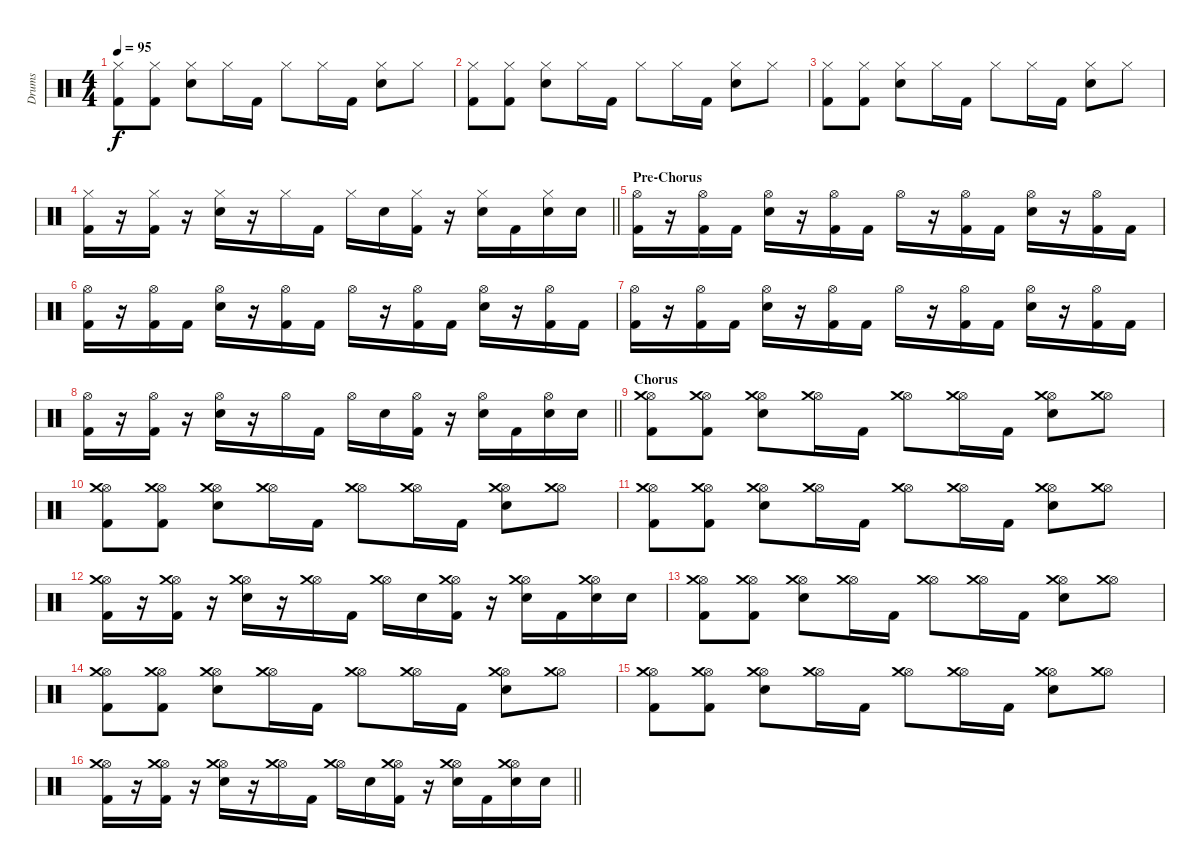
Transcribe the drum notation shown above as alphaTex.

\track ("Drums" "Drums") {instrument percussion}
\staff {score}
\articulation defaults
\ts (4 4)
\tempo 95
\clef neutral
\ks c
("Hi-Hat (closed)" "Kick (hit) 2").8{dy f} ("Hi-Hat (closed)" "Kick (hit) 2").8 ("Hi-Hat (closed)" "Snare (hit) 2").8 "Hi-Hat (closed)".16 "Kick (hit) 2".16 "Hi-Hat (closed)".8 "Hi-Hat (closed)".16 "Kick (hit) 2".16 ("Hi-Hat (closed)" "Snare (hit) 2").8 "Hi-Hat (closed)".8 |
("Hi-Hat (closed)" "Kick (hit) 2").8 ("Hi-Hat (closed)" "Kick (hit) 2").8 ("Hi-Hat (closed)" "Snare (hit) 2").8 "Hi-Hat (closed)".16 "Kick (hit) 2".16 "Hi-Hat (closed)".8 "Hi-Hat (closed)".16 "Kick (hit) 2".16 ("Hi-Hat (closed)" "Snare (hit) 2").8 "Hi-Hat (closed)".8 |
("Hi-Hat (closed)" "Kick (hit) 2").8 ("Hi-Hat (closed)" "Kick (hit) 2").8 ("Hi-Hat (closed)" "Snare (hit) 2").8 "Hi-Hat (closed)".16 "Kick (hit) 2".16 "Hi-Hat (closed)".8 "Hi-Hat (closed)".16 "Kick (hit) 2".16 ("Hi-Hat (closed)" "Snare (hit) 2").8 "Hi-Hat (closed)".8 |
\barLineRight lightlight
("Hi-Hat (closed)" "Kick (hit) 2").16 r.16 ("Hi-Hat (closed)" "Kick (hit) 2").16 r.16 ("Hi-Hat (closed)" "Snare (hit) 2").16 r.16 "Hi-Hat (closed)".16 "Kick (hit) 2".16 "Hi-Hat (closed)".16 "Snare (hit) 2".16 ("Hi-Hat (closed)" "Kick (hit) 2").16 r.16 ("Hi-Hat (closed)" "Snare (hit) 2").16 "Kick (hit) 2".16 ("Hi-Hat (closed)" "Snare (hit) 2").16 "Snare (hit) 2".16 |
\section ("" "Pre-Chorus")
("Hi-Hat (open)" "Kick (hit) 2").16 r.16 ("Hi-Hat (open)" "Kick (hit) 2").16 "Kick (hit) 2".16 ("Hi-Hat (open)" "Snare (hit) 2").16 r.16 ("Hi-Hat (open)" "Kick (hit) 2").16 "Kick (hit) 2".16 "Hi-Hat (open)".16 r.16 ("Hi-Hat (open)" "Kick (hit) 2").16 "Kick (hit) 2".16 ("Hi-Hat (open)" "Snare (hit) 2").16 r.16 ("Hi-Hat (open)" "Kick (hit) 2").16 "Kick (hit) 2".16 |
("Hi-Hat (open)" "Kick (hit) 2").16 r.16 ("Hi-Hat (open)" "Kick (hit) 2").16 "Kick (hit) 2".16 ("Hi-Hat (open)" "Snare (hit) 2").16 r.16 ("Hi-Hat (open)" "Kick (hit) 2").16 "Kick (hit) 2".16 "Hi-Hat (open)".16 r.16 ("Hi-Hat (open)" "Kick (hit) 2").16 "Kick (hit) 2".16 ("Hi-Hat (open)" "Snare (hit) 2").16 r.16 ("Hi-Hat (open)" "Kick (hit) 2").16 "Kick (hit) 2".16 |
("Hi-Hat (open)" "Kick (hit) 2").16 r.16 ("Hi-Hat (open)" "Kick (hit) 2").16 "Kick (hit) 2".16 ("Hi-Hat (open)" "Snare (hit) 2").16 r.16 ("Hi-Hat (open)" "Kick (hit) 2").16 "Kick (hit) 2".16 "Hi-Hat (open)".16 r.16 ("Hi-Hat (open)" "Kick (hit) 2").16 "Kick (hit) 2".16 ("Hi-Hat (open)" "Snare (hit) 2").16 r.16 ("Hi-Hat (open)" "Kick (hit) 2").16 "Kick (hit) 2".16 |
\barLineRight lightlight
("Hi-Hat (open)" "Kick (hit) 2").16 r.16 ("Hi-Hat (open)" "Kick (hit) 2").16 r.16 ("Hi-Hat (open)" "Snare (hit) 2").16 r.16 "Hi-Hat (open)".16 "Kick (hit) 2".16 "Hi-Hat (open)".16 "Snare (hit) 2".16 ("Hi-Hat (open)" "Kick (hit) 2").16 r.16 ("Hi-Hat (open)" "Snare (hit) 2").16 "Kick (hit) 2".16 ("Hi-Hat (open)" "Snare (hit) 2").16 "Snare (hit) 2".16 |
\section ("" "Chorus")
("Hi-Hat (open)" "Crash medium (hit)" "Kick (hit) 2").8 ("Hi-Hat (open)" "Crash medium (hit)" "Kick (hit) 2").8 ("Hi-Hat (open)" "Crash medium (hit)" "Snare (hit) 2").8 ("Hi-Hat (open)" "Crash medium (hit)").16 "Kick (hit) 2".16 ("Hi-Hat (open)" "Crash medium (hit)").8 ("Hi-Hat (open)" "Crash medium (hit)").16 "Kick (hit) 2".16 ("Hi-Hat (open)" "Crash medium (hit)" "Snare (hit) 2").8 ("Hi-Hat (open)" "Crash medium (hit)").8 |
("Hi-Hat (open)" "Crash medium (hit)" "Kick (hit) 2").8 ("Hi-Hat (open)" "Crash medium (hit)" "Kick (hit) 2").8 ("Hi-Hat (open)" "Crash medium (hit)" "Snare (hit) 2").8 ("Hi-Hat (open)" "Crash medium (hit)").16 "Kick (hit) 2".16 ("Hi-Hat (open)" "Crash medium (hit)").8 ("Hi-Hat (open)" "Crash medium (hit)").16 "Kick (hit) 2".16 ("Hi-Hat (open)" "Crash medium (hit)" "Snare (hit) 2").8 ("Hi-Hat (open)" "Crash medium (hit)").8 |
("Hi-Hat (open)" "Crash medium (hit)" "Kick (hit) 2").8 ("Hi-Hat (open)" "Crash medium (hit)" "Kick (hit) 2").8 ("Hi-Hat (open)" "Crash medium (hit)" "Snare (hit) 2").8 ("Hi-Hat (open)" "Crash medium (hit)").16 "Kick (hit) 2".16 ("Hi-Hat (open)" "Crash medium (hit)").8 ("Hi-Hat (open)" "Crash medium (hit)").16 "Kick (hit) 2".16 ("Hi-Hat (open)" "Crash medium (hit)" "Snare (hit) 2").8 ("Hi-Hat (open)" "Crash medium (hit)").8 |
("Hi-Hat (open)" "Crash medium (hit)" "Kick (hit) 2").16 r.16 ("Hi-Hat (open)" "Crash medium (hit)" "Kick (hit) 2").16 r.16 ("Hi-Hat (open)" "Crash medium (hit)" "Snare (hit) 2").16 r.16 ("Hi-Hat (open)" "Crash medium (hit)").16 "Kick (hit) 2".16 ("Hi-Hat (open)" "Crash medium (hit)").16 "Snare (hit) 2".16 ("Hi-Hat (open)" "Crash medium (hit)" "Kick (hit) 2").16 r.16 ("Hi-Hat (open)" "Crash medium (hit)" "Snare (hit) 2").16 "Kick (hit) 2".16 ("Hi-Hat (open)" "Crash medium (hit)" "Snare (hit) 2").16 "Snare (hit) 2".16 |
("Hi-Hat (open)" "Crash medium (hit)" "Kick (hit) 2").8 ("Hi-Hat (open)" "Crash medium (hit)" "Kick (hit) 2").8 ("Hi-Hat (open)" "Crash medium (hit)" "Snare (hit) 2").8 ("Hi-Hat (open)" "Crash medium (hit)").16 "Kick (hit) 2".16 ("Hi-Hat (open)" "Crash medium (hit)").8 ("Hi-Hat (open)" "Crash medium (hit)").16 "Kick (hit) 2".16 ("Hi-Hat (open)" "Crash medium (hit)" "Snare (hit) 2").8 ("Hi-Hat (open)" "Crash medium (hit)").8 |
("Hi-Hat (open)" "Crash medium (hit)" "Kick (hit) 2").8 ("Hi-Hat (open)" "Crash medium (hit)" "Kick (hit) 2").8 ("Hi-Hat (open)" "Crash medium (hit)" "Snare (hit) 2").8 ("Hi-Hat (open)" "Crash medium (hit)").16 "Kick (hit) 2".16 ("Hi-Hat (open)" "Crash medium (hit)").8 ("Hi-Hat (open)" "Crash medium (hit)").16 "Kick (hit) 2".16 ("Hi-Hat (open)" "Crash medium (hit)" "Snare (hit) 2").8 ("Hi-Hat (open)" "Crash medium (hit)").8 |
("Hi-Hat (open)" "Crash medium (hit)" "Kick (hit) 2").8 ("Hi-Hat (open)" "Crash medium (hit)" "Kick (hit) 2").8 ("Hi-Hat (open)" "Crash medium (hit)" "Snare (hit) 2").8 ("Hi-Hat (open)" "Crash medium (hit)").16 "Kick (hit) 2".16 ("Hi-Hat (open)" "Crash medium (hit)").8 ("Hi-Hat (open)" "Crash medium (hit)").16 "Kick (hit) 2".16 ("Hi-Hat (open)" "Crash medium (hit)" "Snare (hit) 2").8 ("Hi-Hat (open)" "Crash medium (hit)").8 |
\barLineRight lightlight
("Hi-Hat (open)" "Crash medium (hit)" "Kick (hit) 2").16 r.16 ("Hi-Hat (open)" "Crash medium (hit)" "Kick (hit) 2").16 r.16 ("Hi-Hat (open)" "Crash medium (hit)" "Snare (hit) 2").16 r.16 ("Hi-Hat (open)" "Crash medium (hit)").16 "Kick (hit) 2".16 ("Hi-Hat (open)" "Crash medium (hit)").16 "Snare (hit) 2".16 ("Hi-Hat (open)" "Crash medium (hit)" "Kick (hit) 2").16 r.16 ("Hi-Hat (open)" "Crash medium (hit)" "Snare (hit) 2").16 "Kick (hit) 2".16 ("Hi-Hat (open)" "Crash medium (hit)" "Snare (hit) 2").16 "Snare (hit) 2".16
